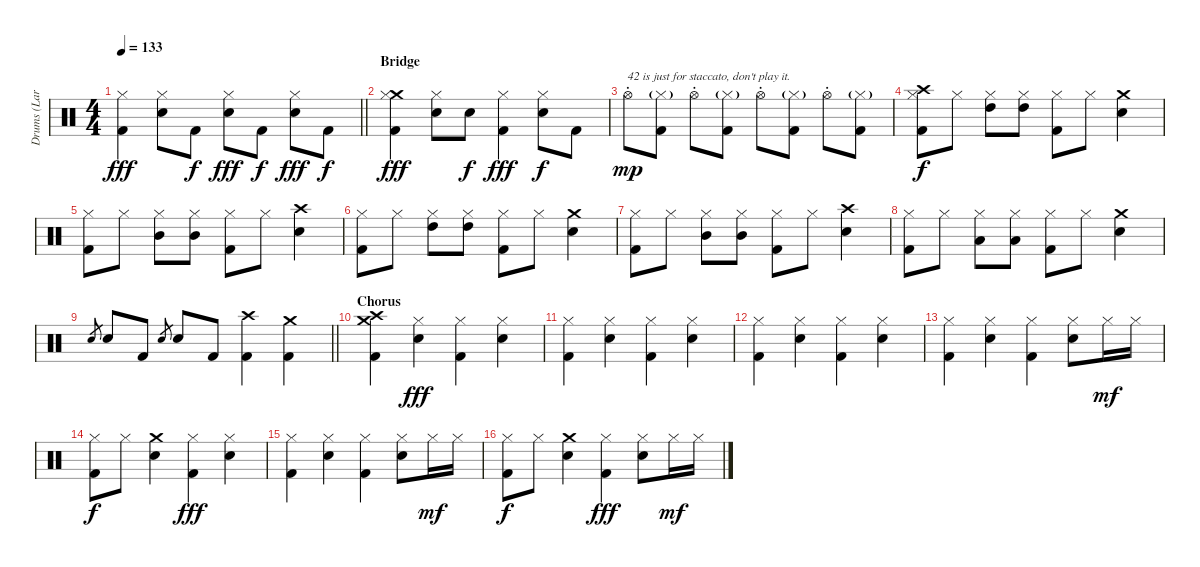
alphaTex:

\track ("Drums (Lars)" "Drums (Lar") {instrument percussion}
\staff {score}
\articulation defaults
\ts (4 4)
\tempo 133
\clef neutral
\barLineRight lightlight
\ks c
("Hi-Hat (closed)" "Kick (hit) 2").4{dy fff} ("Hi-Hat (closed)" "Snare (hit) 2").8 "Kick (hit) 2".8{dy f} ("Hi-Hat (closed)" "Snare (hit) 2").8{dy fff} "Kick (hit) 2".8{dy f} ("Hi-Hat (closed)" "Snare (hit) 2").8{dy fff} "Kick (hit) 2".8{dy f} |
\section ("" "Bridge")
("Crash medium (hit)" "Hi-Hat (closed)" "Kick (hit) 2").4{dy fff} ("Hi-Hat (closed)" "Snare (hit) 2").8 "Snare (hit) 2".8{dy f} ("Hi-Hat (closed)" "Kick (hit) 2").4{dy fff} ("Hi-Hat (closed)" "Snare (hit) 2").8{dy f} "Kick (hit) 2".8 |
"Hi-Hat (open)"{st}.8{txt "42 is just for staccato, don't play it." dy mp} ("Hi-Hat (closed)"{g} "Kick (hit) 2").8 "Hi-Hat (open)"{st}.8 ("Hi-Hat (closed)"{g} "Kick (hit) 2").8 "Hi-Hat (open)"{st}.8 ("Hi-Hat (closed)"{g} "Kick (hit) 2").8 "Hi-Hat (open)"{st}.8 ("Hi-Hat (closed)"{g} "Kick (hit) 2").8 |
("Crash high (hit)" "Hi-Hat (closed)" "Kick (hit) 2").8{dy f} "Hi-Hat (closed)".8 ("Hi-Hat (closed)" "High Tom (hit)").8 ("Hi-Hat (closed)" "High Tom (hit)").8 ("Hi-Hat (closed)" "Kick (hit) 2").8 "Hi-Hat (closed)".8 ("Crash medium (hit)" "Snare (hit) 2").4 |
("Hi-Hat (closed)" "Kick (hit) 2").8 "Hi-Hat (closed)".8 ("Hi-Hat (closed)" "Mid Tom (hit)").8 ("Hi-Hat (closed)" "Mid Tom (hit)").8 ("Hi-Hat (closed)" "Kick (hit) 2").8 "Hi-Hat (closed)".8 ("Crash high (hit)" "Snare (hit) 2").4 |
("Hi-Hat (closed)" "Kick (hit) 2").8 "Hi-Hat (closed)".8 ("Hi-Hat (closed)" "High Tom (hit)").8 ("Hi-Hat (closed)" "High Tom (hit)").8 ("Hi-Hat (closed)" "Kick (hit) 2").8 "Hi-Hat (closed)".8 ("Crash medium (hit)" "Snare (hit) 2").4 |
("Hi-Hat (closed)" "Kick (hit) 2").8 "Hi-Hat (closed)".8 ("Hi-Hat (closed)" "Mid Tom (hit)").8 ("Hi-Hat (closed)" "Mid Tom (hit)").8 ("Hi-Hat (closed)" "Kick (hit) 2").8 "Hi-Hat (closed)".8 ("Crash high (hit)" "Snare (hit) 2").4 |
("Hi-Hat (closed)" "Kick (hit) 2").8 "Hi-Hat (closed)".8 ("Hi-Hat (closed)" "Low Tom (hit)").8 ("Hi-Hat (closed)" "Low Tom (hit)").8 ("Hi-Hat (closed)" "Kick (hit) 2").8 "Hi-Hat (closed)".8 ("Crash medium (hit)" "Snare (hit) 2").4 |
\barLineRight lightlight "Snare (hit) 2".8{gr} "Snare (hit) 2".8 "Kick (hit) 2".8 "Snare (hit) 2".8{gr} "Snare (hit) 2".8 "Kick (hit) 2".8
("Crash high (hit)" "Kick (hit) 2").4 ("Crash medium (hit)" "Kick (hit) 2").4 |
\section ("" "Chorus")
("Crash high (hit)" "Crash medium (hit)" "Kick (hit) 2").4 ("Hi-Hat (closed)" "Snare (hit) 2").4{dy fff} ("Hi-Hat (closed)" "Kick (hit) 2").4 ("Hi-Hat (closed)" "Snare (hit) 2").4 |
("Hi-Hat (closed)" "Kick (hit) 2").4 ("Hi-Hat (closed)" "Snare (hit) 2").4 ("Hi-Hat (closed)" "Kick (hit) 2").4 ("Hi-Hat (closed)" "Snare (hit) 2").4 |
("Hi-Hat (closed)" "Kick (hit) 2").4 ("Hi-Hat (closed)" "Snare (hit) 2").4 ("Hi-Hat (closed)" "Kick (hit) 2").4 ("Hi-Hat (closed)" "Snare (hit) 2").4 |
("Hi-Hat (closed)" "Kick (hit) 2").4 ("Hi-Hat (closed)" "Snare (hit) 2").4 ("Hi-Hat (closed)" "Kick (hit) 2").4 ("Hi-Hat (closed)" "Snare (hit) 2").8 "Hi-Hat (closed)".16{dy mf} "Hi-Hat (closed)".16 |
("Hi-Hat (closed)" "Kick (hit) 2").8{dy f} "Hi-Hat (closed)".8 ("Crash medium (hit)" "Snare (hit) 2").4 ("Hi-Hat (closed)" "Kick (hit) 2").4{dy fff} ("Hi-Hat (closed)" "Snare (hit) 2").4 |
("Hi-Hat (closed)" "Kick (hit) 2").4 ("Hi-Hat (closed)" "Snare (hit) 2").4 ("Hi-Hat (closed)" "Kick (hit) 2").4 ("Hi-Hat (closed)" "Snare (hit) 2").8 "Hi-Hat (closed)".16{dy mf} "Hi-Hat (closed)".16 |
("Hi-Hat (closed)" "Kick (hit) 2").8{dy f} "Hi-Hat (closed)".8 ("Crash medium (hit)" "Snare (hit) 2").4 ("Hi-Hat (closed)" "Kick (hit) 2").4{dy fff} ("Hi-Hat (closed)" "Snare (hit) 2").8 "Hi-Hat (closed)".16{dy mf} "Hi-Hat (closed)".16
